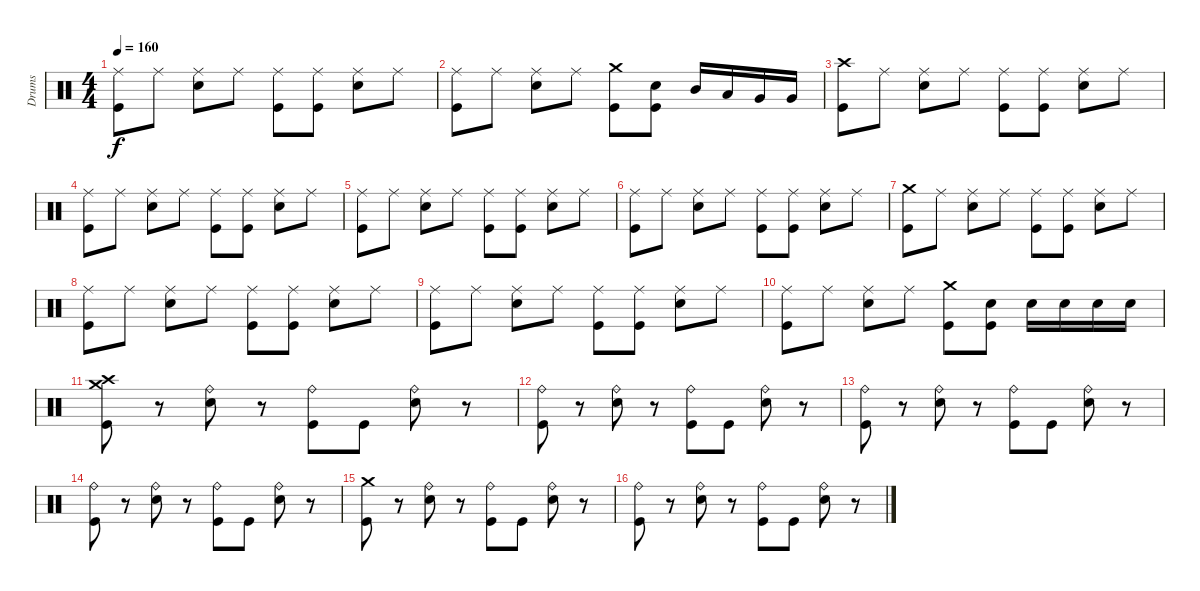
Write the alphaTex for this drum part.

\track ("Drums" "Drums") {instrument percussion}
\staff {score}
\articulation defaults
\ts (4 4)
\tempo 160
\clef neutral
\ks c
("Ride (middle)" "Kick (hit)").8{dy f} "Ride (middle)".8 ("Ride (middle)" "Electric Snare (hit)").8 "Ride (middle)".8 ("Ride (middle)" "Kick (hit)").8 ("Ride (middle)" "Kick (hit)").8 ("Ride (middle)" "Electric Snare (hit)").8 "Ride (middle)".8 |
("Ride (middle)" "Kick (hit)").8 "Ride (middle)".8 ("Ride (middle)" "Electric Snare (hit)").8 "Ride (middle)".8 ("Crash medium (hit)" "Kick (hit)").8 ("Electric Snare (hit)" "Kick (hit)").8 "Mid Tom (hit)".16 "Low Tom (hit)".16 "Very Low Tom (hit)".16 "Very Low Tom (hit)".16 |
("Crash high (hit)" "Kick (hit)").8 "Ride (middle)".8 ("Ride (middle)" "Electric Snare (hit)").8 "Ride (middle)".8 ("Ride (middle)" "Kick (hit)").8 ("Ride (middle)" "Kick (hit)").8 ("Ride (middle)" "Electric Snare (hit)").8 "Ride (middle)".8 |
("Ride (middle)" "Kick (hit)").8 "Ride (middle)".8 ("Ride (middle)" "Electric Snare (hit)").8 "Ride (middle)".8 ("Ride (middle)" "Kick (hit)").8 ("Ride (middle)" "Kick (hit)").8 ("Ride (middle)" "Electric Snare (hit)").8 "Ride (middle)".8 |
("Ride (middle)" "Kick (hit)").8 "Ride (middle)".8 ("Ride (middle)" "Electric Snare (hit)").8 "Ride (middle)".8 ("Ride (middle)" "Kick (hit)").8 ("Ride (middle)" "Kick (hit)").8 ("Ride (middle)" "Electric Snare (hit)").8 "Ride (middle)".8 |
("Ride (middle)" "Kick (hit)").8 "Ride (middle)".8 ("Ride (middle)" "Electric Snare (hit)").8 "Ride (middle)".8 ("Ride (middle)" "Kick (hit)").8 ("Ride (middle)" "Kick (hit)").8 ("Ride (middle)" "Electric Snare (hit)").8 "Ride (middle)".8 |
("Crash medium (hit)" "Kick (hit)").8 "Ride (middle)".8 ("Ride (middle)" "Electric Snare (hit)").8 "Ride (middle)".8 ("Ride (middle)" "Kick (hit)").8 ("Ride (middle)" "Kick (hit)").8 ("Ride (middle)" "Electric Snare (hit)").8 "Ride (middle)".8 |
("Ride (middle)" "Kick (hit)").8 "Ride (middle)".8 ("Ride (middle)" "Electric Snare (hit)").8 "Ride (middle)".8 ("Ride (middle)" "Kick (hit)").8 ("Ride (middle)" "Kick (hit)").8 ("Ride (middle)" "Electric Snare (hit)").8 "Ride (middle)".8 |
("Ride (middle)" "Kick (hit)").8 "Ride (middle)".8 ("Ride (middle)" "Electric Snare (hit)").8 "Ride (middle)".8 ("Ride (middle)" "Kick (hit)").8 ("Ride (middle)" "Kick (hit)").8 ("Ride (middle)" "Electric Snare (hit)").8 "Ride (middle)".8 |
("Ride (middle)" "Kick (hit)").8 "Ride (middle)".8 ("Ride (middle)" "Electric Snare (hit)").8 "Ride (middle)".8 ("Crash medium (hit)" "Kick (hit)").8 ("Electric Snare (hit)" "Kick (hit)").8 "Electric Snare (hit)".16 "Electric Snare (hit)".16 "Electric Snare (hit)".16 "Electric Snare (hit)".16 |
("Crash high (hit)" "Crash medium (hit)" "Kick (hit)").8 r.8 ("Ride (bell)" "Electric Snare (hit)").8 r.8 ("Ride (bell)" "Kick (hit)").8 "Kick (hit)".8 ("Ride (bell)" "Electric Snare (hit)").8 r.8 |
("Ride (bell)" "Kick (hit)").8 r.8 ("Ride (bell)" "Electric Snare (hit)").8 r.8 ("Ride (bell)" "Kick (hit)").8 "Kick (hit)".8 ("Ride (bell)" "Electric Snare (hit)").8 r.8 |
("Ride (bell)" "Kick (hit)").8 r.8 ("Ride (bell)" "Electric Snare (hit)").8 r.8 ("Ride (bell)" "Kick (hit)").8 "Kick (hit)".8 ("Ride (bell)" "Electric Snare (hit)").8 r.8 |
("Ride (bell)" "Kick (hit)").8 r.8 ("Ride (bell)" "Electric Snare (hit)").8 r.8 ("Ride (bell)" "Kick (hit)").8 "Kick (hit)".8 ("Ride (bell)" "Electric Snare (hit)").8 r.8 |
("Crash medium (hit)" "Kick (hit)").8 r.8 ("Ride (bell)" "Electric Snare (hit)").8 r.8 ("Ride (bell)" "Kick (hit)").8 "Kick (hit)".8 ("Ride (bell)" "Electric Snare (hit)").8 r.8 |
("Ride (bell)" "Kick (hit)").8 r.8 ("Ride (bell)" "Electric Snare (hit)").8 r.8 ("Ride (bell)" "Kick (hit)").8 "Kick (hit)".8 ("Ride (bell)" "Electric Snare (hit)").8 r.8
